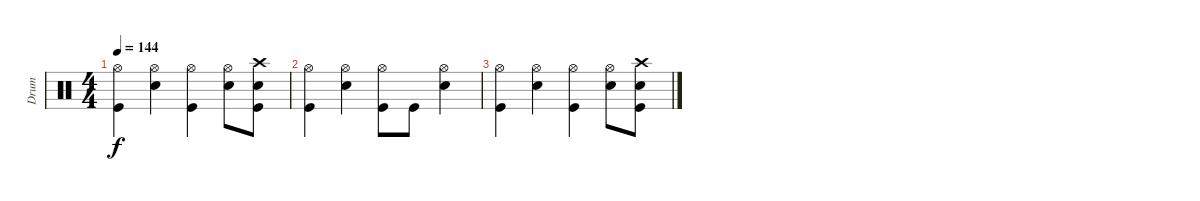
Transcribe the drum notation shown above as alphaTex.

\track ("Drum" "Drum") {instrument percussion}
\staff {score}
\articulation defaults
\ts (4 4)
\tempo 144
\clef neutral
\ks c
("Hi-Hat (open)" "Kick (hit)").4{dy f} ("Hi-Hat (open)" "Electric Snare (hit)").4 ("Hi-Hat (open)" "Kick (hit)").4 ("Hi-Hat (open)" "Electric Snare (hit)").8 ("Crash high (hit)" "Electric Snare (hit)" "Kick (hit)").8 |
("Hi-Hat (open)" "Kick (hit)").4 ("Hi-Hat (open)" "Electric Snare (hit)").4 ("Hi-Hat (open)" "Kick (hit)").8 "Kick (hit)".8 ("Hi-Hat (open)" "Electric Snare (hit)").4 |
("Hi-Hat (open)" "Kick (hit)").4 ("Hi-Hat (open)" "Electric Snare (hit)").4 ("Hi-Hat (open)" "Kick (hit)").4 ("Hi-Hat (open)" "Electric Snare (hit)").8 ("Crash high (hit)" "Electric Snare (hit)" "Kick (hit)").8
